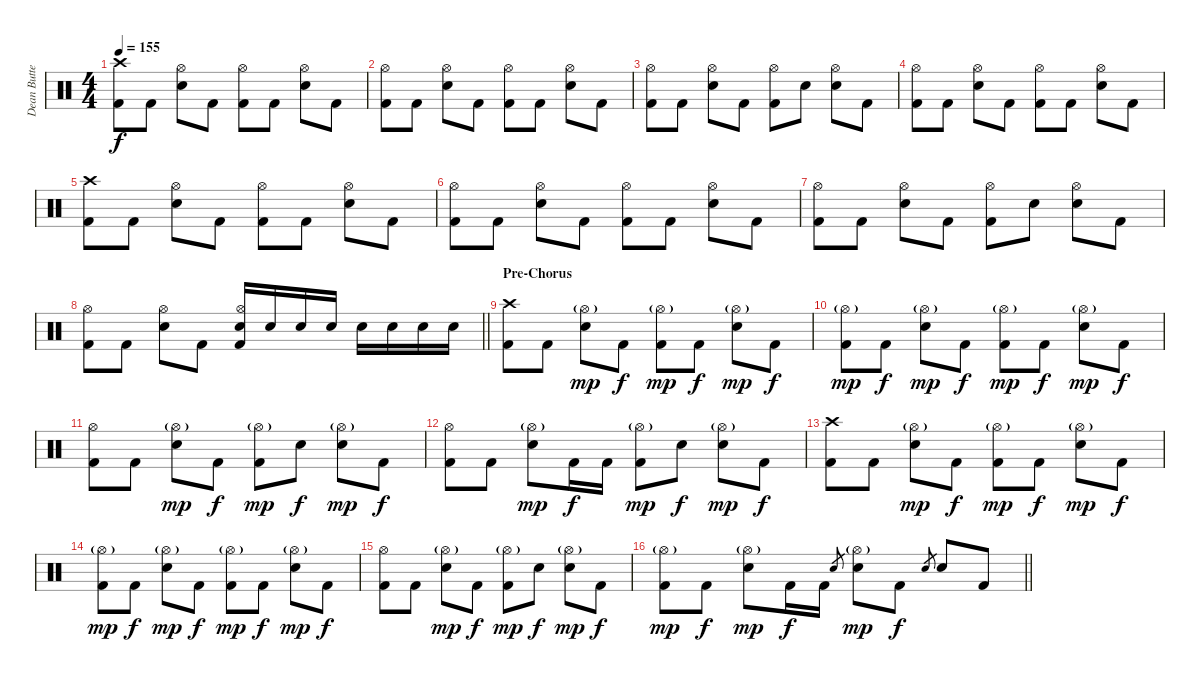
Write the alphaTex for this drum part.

\track ("Dean Butterworth [Drums]" "Dean Butte") {instrument percussion}
\staff {score}
\articulation defaults
\ts (4 4)
\tempo 155
\clef neutral
\ks c
("Crash high (hit)" "Kick (hit) 2").8{dy f} "Kick (hit) 2".8 ("Hi-Hat (open)" "Electric Snare (hit)").8 "Kick (hit) 2".8 ("Hi-Hat (open)" "Kick (hit) 2").8 "Kick (hit) 2".8 ("Hi-Hat (open)" "Electric Snare (hit)").8 "Kick (hit) 2".8 |
("Hi-Hat (open)" "Kick (hit) 2").8 "Kick (hit) 2".8 ("Hi-Hat (open)" "Electric Snare (hit)").8 "Kick (hit) 2".8 ("Hi-Hat (open)" "Kick (hit) 2").8 "Kick (hit) 2".8 ("Hi-Hat (open)" "Electric Snare (hit)").8 "Kick (hit) 2".8 |
("Hi-Hat (open)" "Kick (hit) 2").8 "Kick (hit) 2".8 ("Hi-Hat (open)" "Electric Snare (hit)").8 "Kick (hit) 2".8 ("Hi-Hat (open)" "Kick (hit) 2").8 "Electric Snare (hit)".8 ("Hi-Hat (open)" "Electric Snare (hit)").8 "Kick (hit) 2".8 |
("Hi-Hat (open)" "Kick (hit) 2").8 "Kick (hit) 2".8 ("Hi-Hat (open)" "Electric Snare (hit)").8 "Kick (hit) 2".8 ("Hi-Hat (open)" "Kick (hit) 2").8 "Kick (hit) 2".8 ("Hi-Hat (open)" "Electric Snare (hit)").8 "Kick (hit) 2".8 |
("Crash high (hit)" "Kick (hit) 2").8 "Kick (hit) 2".8 ("Hi-Hat (open)" "Electric Snare (hit)").8 "Kick (hit) 2".8 ("Hi-Hat (open)" "Kick (hit) 2").8 "Kick (hit) 2".8 ("Hi-Hat (open)" "Electric Snare (hit)").8 "Kick (hit) 2".8 |
("Hi-Hat (open)" "Kick (hit) 2").8 "Kick (hit) 2".8 ("Hi-Hat (open)" "Electric Snare (hit)").8 "Kick (hit) 2".8 ("Hi-Hat (open)" "Kick (hit) 2").8 "Kick (hit) 2".8 ("Hi-Hat (open)" "Electric Snare (hit)").8 "Kick (hit) 2".8 |
("Hi-Hat (open)" "Kick (hit) 2").8 "Kick (hit) 2".8 ("Hi-Hat (open)" "Electric Snare (hit)").8 "Kick (hit) 2".8 ("Hi-Hat (open)" "Kick (hit) 2").8 "Electric Snare (hit)".8 ("Hi-Hat (open)" "Electric Snare (hit)").8 "Kick (hit) 2".8 |
\barLineRight lightlight
("Hi-Hat (open)" "Kick (hit) 2").8 "Kick (hit) 2".8 ("Hi-Hat (open)" "Electric Snare (hit)").8 "Kick (hit) 2".8 ("Hi-Hat (open)" "Electric Snare (hit)" "Kick (hit) 2").16 "Electric Snare (hit)".16 "Electric Snare (hit)".16 "Electric Snare (hit)".16 "Electric Snare (hit)".16 "Electric Snare (hit)".16 "Electric Snare (hit)".16 "Electric Snare (hit)".16 |
\section ("" "Pre-Chorus")
("Crash high (hit)" "Kick (hit) 2").8 "Kick (hit) 2".8 ("Hi-Hat (open)"{g} "Electric Snare (hit)").8{dy mp} "Kick (hit) 2".8{dy f} ("Hi-Hat (open)"{g} "Kick (hit) 2").8{dy mp} "Kick (hit) 2".8{dy f} ("Hi-Hat (open)"{g} "Electric Snare (hit)").8{dy mp} "Kick (hit) 2".8{dy f} |
("Hi-Hat (open)"{g} "Kick (hit) 2").8{dy mp} "Kick (hit) 2".8{dy f} ("Hi-Hat (open)"{g} "Electric Snare (hit)").8{dy mp} "Kick (hit) 2".8{dy f} ("Hi-Hat (open)"{g} "Kick (hit) 2").8{dy mp} "Kick (hit) 2".8{dy f} ("Hi-Hat (open)"{g} "Electric Snare (hit)").8{dy mp} "Kick (hit) 2".8{dy f} |
("Hi-Hat (open)" "Kick (hit) 2").8 "Kick (hit) 2".8 ("Hi-Hat (open)"{g} "Electric Snare (hit)").8{dy mp} "Kick (hit) 2".8{dy f} ("Hi-Hat (open)"{g} "Kick (hit) 2").8{dy mp} "Electric Snare (hit)".8{dy f} ("Hi-Hat (open)"{g} "Electric Snare (hit)").8{dy mp} "Kick (hit) 2".8{dy f} |
("Hi-Hat (open)" "Kick (hit) 2").8 "Kick (hit) 2".8 ("Hi-Hat (open)"{g} "Electric Snare (hit)").8{dy mp} "Kick (hit) 2".16{dy f} "Kick (hit) 2".16 ("Hi-Hat (open)"{g} "Kick (hit) 2").8{dy mp} "Electric Snare (hit)".8{dy f} ("Hi-Hat (open)"{g} "Electric Snare (hit)").8{dy mp} "Kick (hit) 2".8{dy f} |
("Crash high (hit)" "Kick (hit) 2").8 "Kick (hit) 2".8 ("Hi-Hat (open)"{g} "Electric Snare (hit)").8{dy mp} "Kick (hit) 2".8{dy f} ("Hi-Hat (open)"{g} "Kick (hit) 2").8{dy mp} "Kick (hit) 2".8{dy f} ("Hi-Hat (open)"{g} "Electric Snare (hit)").8{dy mp} "Kick (hit) 2".8{dy f} |
("Hi-Hat (open)"{g} "Kick (hit) 2").8{dy mp} "Kick (hit) 2".8{dy f} ("Hi-Hat (open)"{g} "Electric Snare (hit)").8{dy mp} "Kick (hit) 2".8{dy f} ("Hi-Hat (open)"{g} "Kick (hit) 2").8{dy mp} "Kick (hit) 2".8{dy f} ("Hi-Hat (open)"{g} "Electric Snare (hit)").8{dy mp} "Kick (hit) 2".8{dy f} |
("Hi-Hat (open)" "Kick (hit) 2").8 "Kick (hit) 2".8 ("Hi-Hat (open)"{g} "Electric Snare (hit)").8{dy mp} "Kick (hit) 2".8{dy f} ("Hi-Hat (open)"{g} "Kick (hit) 2").8{dy mp} "Electric Snare (hit)".8{dy f} ("Hi-Hat (open)"{g} "Electric Snare (hit)").8{dy mp} "Kick (hit) 2".8{dy f} |
\barLineRight lightlight
("Hi-Hat (open)"{g} "Kick (hit) 2").8{dy mp} "Kick (hit) 2".8{dy f} ("Hi-Hat (open)"{g} "Electric Snare (hit)").8{dy mp} "Kick (hit) 2".16{dy f} "Kick (hit) 2".16 "Electric Snare (hit)".8{gr} ("Hi-Hat (open)"{g} "Electric Snare (hit)").8{dy mp} "Kick (hit) 2".8{dy f} "Electric Snare (hit)".8{gr} "Electric Snare (hit)".8 "Kick (hit) 2".8
